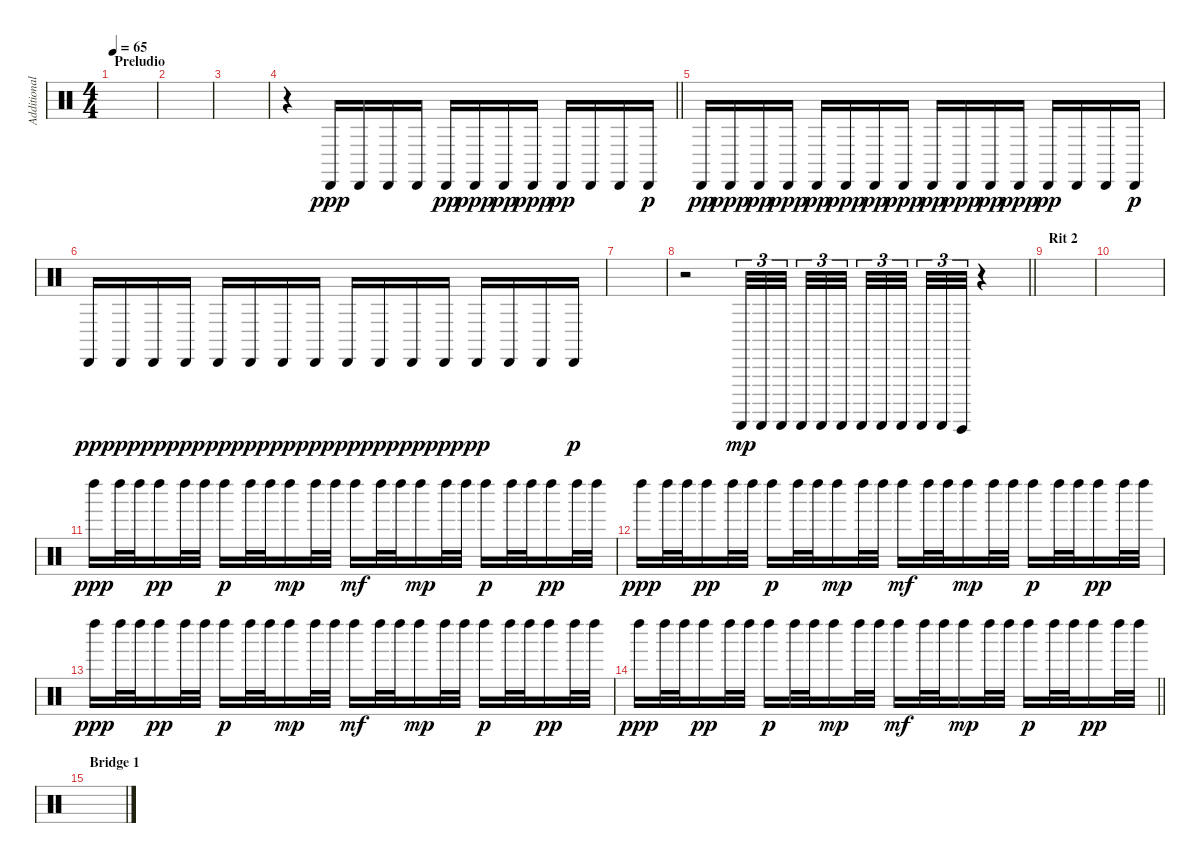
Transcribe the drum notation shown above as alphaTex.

\track ("Additional Percussions" "Additional") {instrument percussion}
\staff {score}
\articulation defaults
\ts (4 4)
\section ("" "Preludio")
\tempo 65
\clef neutral
\ks c
|
|
|
\barLineRight lightlight
r.4 "Cabasa (hit)".16{dy ppp} "Cabasa (hit)".16 "Cabasa (hit)".16 "Cabasa (hit)".16 "Cabasa (hit)".16{dy pp} "Cabasa (hit)".16{dy ppp} "Cabasa (hit)".16{dy pp} "Cabasa (hit)".16{dy ppp} "Cabasa (hit)".16{dy pp} "Cabasa (hit)".16 "Cabasa (hit)".16 "Cabasa (hit)".16{dy p} |
"Cabasa (hit)".16{dy pp} "Cabasa (hit)".16{dy ppp} "Cabasa (hit)".16{dy pp} "Cabasa (hit)".16{dy ppp} "Cabasa (hit)".16{dy pp} "Cabasa (hit)".16{dy ppp} "Cabasa (hit)".16{dy pp} "Cabasa (hit)".16{dy ppp} "Cabasa (hit)".16{dy pp} "Cabasa (hit)".16{dy ppp} "Cabasa (hit)".16{dy pp} "Cabasa (hit)".16{dy ppp} "Cabasa (hit)".16{dy pp} "Cabasa (hit)".16 "Cabasa (hit)".16 "Cabasa (hit)".16{dy p} |
"Cabasa (hit)".16{dy pp} "Cabasa (hit)".16{dy ppp} "Cabasa (hit)".16{dy pp} "Cabasa (hit)".16{dy ppp} "Cabasa (hit)".16{dy pp} "Cabasa (hit)".16{dy ppp} "Cabasa (hit)".16{dy pp} "Cabasa (hit)".16{dy ppp} "Cabasa (hit)".16{dy pp} "Cabasa (hit)".16{dy ppp} "Cabasa (hit)".16{dy pp} "Cabasa (hit)".16{dy ppp} "Cabasa (hit)".16{dy pp} "Cabasa (hit)".16 "Cabasa (hit)".16 "Cabasa (hit)".16{dy p} |
|
\barLineRight lightlight
r.2 "Guiro (scrap-return)".32{tu (3 2) dy mp balance 0} "Guiro (scrap-return)".32{tu (3 2)} "Guiro (scrap-return)".32{tu (3 2) beam splitsecondary} "Guiro (scrap-return)".32{tu (3 2)} "Guiro (scrap-return)".32{tu (3 2)} "Guiro (scrap-return)".32{tu (3 2) beam splitsecondary} "Guiro (scrap-return)".32{tu (3 2) balance 16} "Guiro (scrap-return)".32{tu (3 2)} "Guiro (scrap-return)".32{tu (3 2) beam splitsecondary} "Guiro (scrap-return)".32{tu (3 2)} "Guiro (scrap-return)".32{tu (3 2)} "Guiro (hit)".32{tu (3 2)} r.4{balance 8} |
\section ("" "Rit 2")
|
|
"Left Maraca (hit)".16{dy ppp} "Left Maraca (hit)".32 "Left Maraca (hit)".32 "Left Maraca (hit)".16{dy pp} "Left Maraca (hit)".32 "Left Maraca (hit)".32 "Left Maraca (hit)".16{dy p} "Left Maraca (hit)".32 "Left Maraca (hit)".32 "Left Maraca (hit)".16{dy mp} "Left Maraca (hit)".32 "Left Maraca (hit)".32 "Left Maraca (hit)".16{dy mf} "Left Maraca (hit)".32 "Left Maraca (hit)".32 "Left Maraca (hit)".16{dy mp} "Left Maraca (hit)".32 "Left Maraca (hit)".32 "Left Maraca (hit)".16{dy p} "Left Maraca (hit)".32 "Left Maraca (hit)".32 "Left Maraca (hit)".16{dy pp} "Left Maraca (hit)".32 "Left Maraca (hit)".32 |
"Left Maraca (hit)".16{dy ppp} "Left Maraca (hit)".32 "Left Maraca (hit)".32 "Left Maraca (hit)".16{dy pp} "Left Maraca (hit)".32 "Left Maraca (hit)".32 "Left Maraca (hit)".16{dy p} "Left Maraca (hit)".32 "Left Maraca (hit)".32 "Left Maraca (hit)".16{dy mp} "Left Maraca (hit)".32 "Left Maraca (hit)".32 "Left Maraca (hit)".16{dy mf} "Left Maraca (hit)".32 "Left Maraca (hit)".32 "Left Maraca (hit)".16{dy mp} "Left Maraca (hit)".32 "Left Maraca (hit)".32 "Left Maraca (hit)".16{dy p} "Left Maraca (hit)".32 "Left Maraca (hit)".32 "Left Maraca (hit)".16{dy pp} "Left Maraca (hit)".32 "Left Maraca (hit)".32 |
"Left Maraca (hit)".16{dy ppp} "Left Maraca (hit)".32 "Left Maraca (hit)".32 "Left Maraca (hit)".16{dy pp} "Left Maraca (hit)".32 "Left Maraca (hit)".32 "Left Maraca (hit)".16{dy p} "Left Maraca (hit)".32 "Left Maraca (hit)".32 "Left Maraca (hit)".16{dy mp} "Left Maraca (hit)".32 "Left Maraca (hit)".32 "Left Maraca (hit)".16{dy mf} "Left Maraca (hit)".32 "Left Maraca (hit)".32 "Left Maraca (hit)".16{dy mp} "Left Maraca (hit)".32 "Left Maraca (hit)".32 "Left Maraca (hit)".16{dy p} "Left Maraca (hit)".32 "Left Maraca (hit)".32 "Left Maraca (hit)".16{dy pp} "Left Maraca (hit)".32 "Left Maraca (hit)".32 |
\barLineRight lightlight "Left Maraca (hit)".16{dy ppp} "Left Maraca (hit)".32 "Left Maraca (hit)".32 "Left Maraca (hit)".16{dy pp} "Left Maraca (hit)".32 "Left Maraca (hit)".32 "Left Maraca (hit)".16{dy p} "Left Maraca (hit)".32 "Left Maraca (hit)".32 "Left Maraca (hit)".16{dy mp} "Left Maraca (hit)".32 "Left Maraca (hit)".32 "Left Maraca (hit)".16{dy mf} "Left Maraca (hit)".32 "Left Maraca (hit)".32 "Left Maraca (hit)".16{dy mp} "Left Maraca (hit)".32 "Left Maraca (hit)".32 "Left Maraca (hit)".16{dy p} "Left Maraca (hit)".32 "Left Maraca (hit)".32 "Left Maraca (hit)".16{dy pp} "Left Maraca (hit)".32 "Left Maraca (hit)".32
|
\section ("" "Bridge 1")
